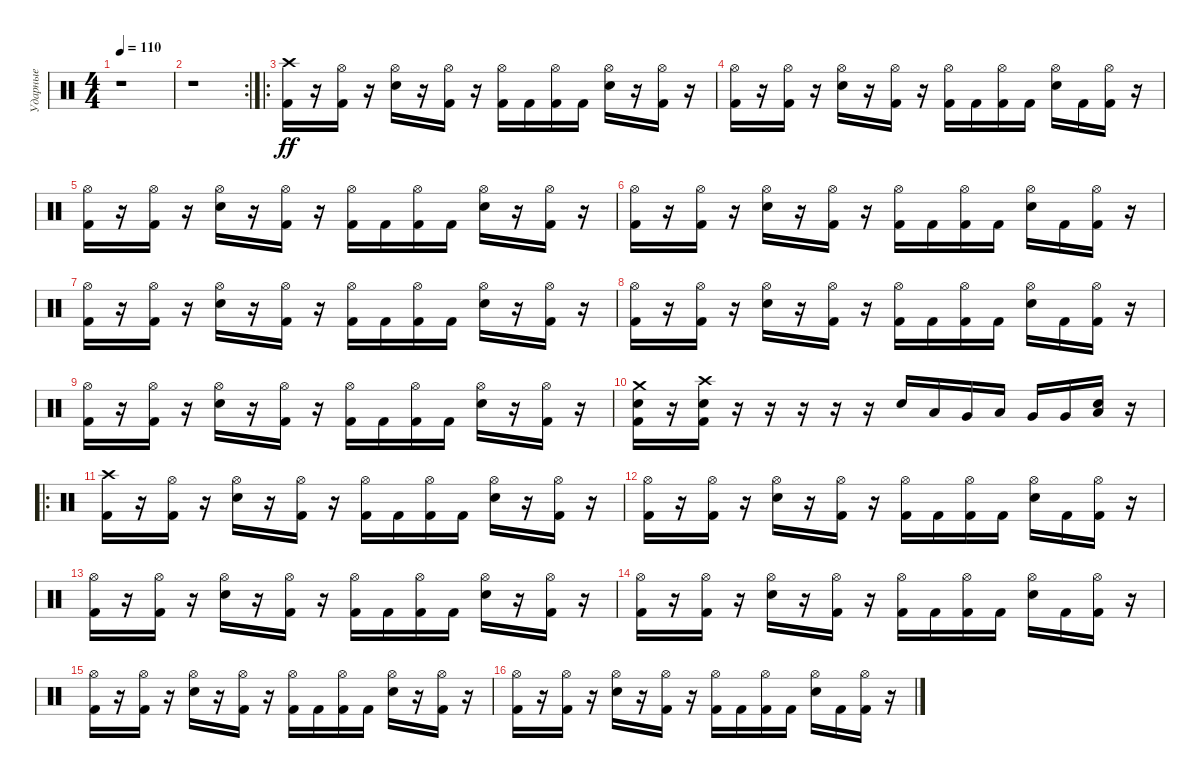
\track ("Ударные" "Ударные") {instrument percussion}
\staff {score}
\articulation defaults
\ts (4 4)
\tempo 110
\clef neutral
\ks c
r.1{dy ff} |
\rc 2
r.1 |
\ro
("Crash high (hit)" "Kick (hit) 2").16 r.16 ("Hi-Hat (open)" "Kick (hit) 2").16 r.16 ("Hi-Hat (open)" "Snare (hit) 2").16 r.16 ("Hi-Hat (open)" "Kick (hit) 2").16 r.16 ("Hi-Hat (open)" "Kick (hit) 2").16 "Kick (hit) 2".16 ("Hi-Hat (open)" "Kick (hit) 2").16 "Kick (hit) 2".16 ("Hi-Hat (open)" "Snare (hit) 2").16 r.16 ("Hi-Hat (open)" "Kick (hit) 2").16 r.16 |
("Hi-Hat (open)" "Kick (hit) 2").16 r.16 ("Hi-Hat (open)" "Kick (hit) 2").16 r.16 ("Hi-Hat (open)" "Snare (hit) 2").16 r.16 ("Hi-Hat (open)" "Kick (hit) 2").16 r.16 ("Hi-Hat (open)" "Kick (hit) 2").16 "Kick (hit) 2".16 ("Hi-Hat (open)" "Kick (hit) 2").16 "Kick (hit) 2".16 ("Hi-Hat (open)" "Snare (hit) 2").16 "Kick (hit) 2".16 ("Hi-Hat (open)" "Kick (hit) 2").16 r.16 |
("Hi-Hat (open)" "Kick (hit) 2").16 r.16 ("Hi-Hat (open)" "Kick (hit) 2").16 r.16 ("Hi-Hat (open)" "Snare (hit) 2").16 r.16 ("Hi-Hat (open)" "Kick (hit) 2").16 r.16 ("Hi-Hat (open)" "Kick (hit) 2").16 "Kick (hit) 2".16 ("Hi-Hat (open)" "Kick (hit) 2").16 "Kick (hit) 2".16 ("Hi-Hat (open)" "Snare (hit) 2").16 r.16 ("Hi-Hat (open)" "Kick (hit) 2").16 r.16 |
("Hi-Hat (open)" "Kick (hit) 2").16 r.16 ("Hi-Hat (open)" "Kick (hit) 2").16 r.16 ("Hi-Hat (open)" "Snare (hit) 2").16 r.16 ("Hi-Hat (open)" "Kick (hit) 2").16 r.16 ("Hi-Hat (open)" "Kick (hit) 2").16 "Kick (hit) 2".16 ("Hi-Hat (open)" "Kick (hit) 2").16 "Kick (hit) 2".16 ("Hi-Hat (open)" "Snare (hit) 2").16 "Kick (hit) 2".16 ("Hi-Hat (open)" "Kick (hit) 2").16 r.16 |
("Hi-Hat (open)" "Kick (hit) 2").16 r.16 ("Hi-Hat (open)" "Kick (hit) 2").16 r.16 ("Hi-Hat (open)" "Snare (hit) 2").16 r.16 ("Hi-Hat (open)" "Kick (hit) 2").16 r.16 ("Hi-Hat (open)" "Kick (hit) 2").16 "Kick (hit) 2".16 ("Hi-Hat (open)" "Kick (hit) 2").16 "Kick (hit) 2".16 ("Hi-Hat (open)" "Snare (hit) 2").16 r.16 ("Hi-Hat (open)" "Kick (hit) 2").16 r.16 |
("Hi-Hat (open)" "Kick (hit) 2").16 r.16 ("Hi-Hat (open)" "Kick (hit) 2").16 r.16 ("Hi-Hat (open)" "Snare (hit) 2").16 r.16 ("Hi-Hat (open)" "Kick (hit) 2").16 r.16 ("Hi-Hat (open)" "Kick (hit) 2").16 "Kick (hit) 2".16 ("Hi-Hat (open)" "Kick (hit) 2").16 "Kick (hit) 2".16 ("Hi-Hat (open)" "Snare (hit) 2").16 "Kick (hit) 2".16 ("Hi-Hat (open)" "Kick (hit) 2").16 r.16 |
("Hi-Hat (open)" "Kick (hit) 2").16 r.16 ("Hi-Hat (open)" "Kick (hit) 2").16 r.16 ("Hi-Hat (open)" "Snare (hit) 2").16 r.16 ("Hi-Hat (open)" "Kick (hit) 2").16 r.16 ("Hi-Hat (open)" "Kick (hit) 2").16 "Kick (hit) 2".16 ("Hi-Hat (open)" "Kick (hit) 2").16 "Kick (hit) 2".16 ("Hi-Hat (open)" "Snare (hit) 2").16 r.16 ("Hi-Hat (open)" "Kick (hit) 2").16 r.16 |
("Crash medium (hit)" "Snare (hit) 2" "Kick (hit) 2").16 r.16 ("Crash high (hit)" "Snare (hit) 2" "Kick (hit) 2").16 r.16 r.16 r.16 r.16 r.16 "Snare (hit) 2".16 "Low Floor Tom (hit)".16 "Very Low Tom (hit)".16 "Low Tom (hit)".16 "Very Low Tom (hit)".16 "Very Low Tom (hit)".16 ("Snare (hit) 2" "Low Floor Tom (hit)").16 r.16 |
\ro
("Crash high (hit)" "Kick (hit) 2").16 r.16 ("Hi-Hat (open)" "Kick (hit) 2").16 r.16 ("Hi-Hat (open)" "Snare (hit) 2").16 r.16 ("Hi-Hat (open)" "Kick (hit) 2").16 r.16 ("Hi-Hat (open)" "Kick (hit) 2").16 "Kick (hit) 2".16 ("Hi-Hat (open)" "Kick (hit) 2").16 "Kick (hit) 2".16 ("Hi-Hat (open)" "Snare (hit) 2").16 r.16 ("Hi-Hat (open)" "Kick (hit) 2").16 r.16 |
("Hi-Hat (open)" "Kick (hit) 2").16 r.16 ("Hi-Hat (open)" "Kick (hit) 2").16 r.16 ("Hi-Hat (open)" "Snare (hit) 2").16 r.16 ("Hi-Hat (open)" "Kick (hit) 2").16 r.16 ("Hi-Hat (open)" "Kick (hit) 2").16 "Kick (hit) 2".16 ("Hi-Hat (open)" "Kick (hit) 2").16 "Kick (hit) 2".16 ("Hi-Hat (open)" "Snare (hit) 2").16 "Kick (hit) 2".16 ("Hi-Hat (open)" "Kick (hit) 2").16 r.16 |
("Hi-Hat (open)" "Kick (hit) 2").16 r.16 ("Hi-Hat (open)" "Kick (hit) 2").16 r.16 ("Hi-Hat (open)" "Snare (hit) 2").16 r.16 ("Hi-Hat (open)" "Kick (hit) 2").16 r.16 ("Hi-Hat (open)" "Kick (hit) 2").16 "Kick (hit) 2".16 ("Hi-Hat (open)" "Kick (hit) 2").16 "Kick (hit) 2".16 ("Hi-Hat (open)" "Snare (hit) 2").16 r.16 ("Hi-Hat (open)" "Kick (hit) 2").16 r.16 |
("Hi-Hat (open)" "Kick (hit) 2").16 r.16 ("Hi-Hat (open)" "Kick (hit) 2").16 r.16 ("Hi-Hat (open)" "Snare (hit) 2").16 r.16 ("Hi-Hat (open)" "Kick (hit) 2").16 r.16 ("Hi-Hat (open)" "Kick (hit) 2").16 "Kick (hit) 2".16 ("Hi-Hat (open)" "Kick (hit) 2").16 "Kick (hit) 2".16 ("Hi-Hat (open)" "Snare (hit) 2").16 "Kick (hit) 2".16 ("Hi-Hat (open)" "Kick (hit) 2").16 r.16 |
("Hi-Hat (open)" "Kick (hit) 2").16 r.16 ("Hi-Hat (open)" "Kick (hit) 2").16 r.16 ("Hi-Hat (open)" "Snare (hit) 2").16 r.16 ("Hi-Hat (open)" "Kick (hit) 2").16 r.16 ("Hi-Hat (open)" "Kick (hit) 2").16 "Kick (hit) 2".16 ("Hi-Hat (open)" "Kick (hit) 2").16 "Kick (hit) 2".16 ("Hi-Hat (open)" "Snare (hit) 2").16 r.16 ("Hi-Hat (open)" "Kick (hit) 2").16 r.16 |
("Hi-Hat (open)" "Kick (hit) 2").16 r.16 ("Hi-Hat (open)" "Kick (hit) 2").16 r.16 ("Hi-Hat (open)" "Snare (hit) 2").16 r.16 ("Hi-Hat (open)" "Kick (hit) 2").16 r.16 ("Hi-Hat (open)" "Kick (hit) 2").16 "Kick (hit) 2".16 ("Hi-Hat (open)" "Kick (hit) 2").16 "Kick (hit) 2".16 ("Hi-Hat (open)" "Snare (hit) 2").16 "Kick (hit) 2".16 ("Hi-Hat (open)" "Kick (hit) 2").16 r.16
